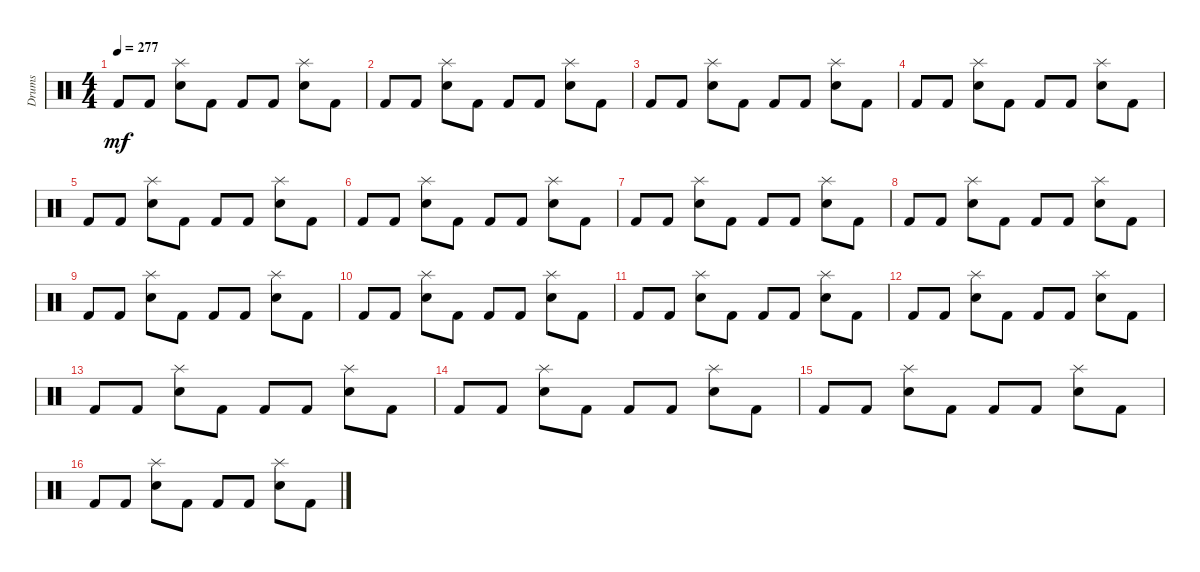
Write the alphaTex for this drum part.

\track ("Drums" "Drums") {instrument percussion}
\staff {score}
\articulation defaults
\ts (4 4)
\tempo 277
\clef neutral
\ks c "Kick (hit) 2".8{dy mf} "Kick (hit) 2".8
("Splash (hit)" "Electric Snare (hit)").8 "Kick (hit) 2".8 "Kick (hit) 2".8 "Kick (hit) 2".8 ("Splash (hit)" "Electric Snare (hit)").8 "Kick (hit) 2".8 |
"Kick (hit) 2".8 "Kick (hit) 2".8 ("Splash (hit)" "Electric Snare (hit)").8 "Kick (hit) 2".8 "Kick (hit) 2".8 "Kick (hit) 2".8 ("Splash (hit)" "Electric Snare (hit)").8 "Kick (hit) 2".8 |
"Kick (hit) 2".8 "Kick (hit) 2".8 ("Splash (hit)" "Electric Snare (hit)").8 "Kick (hit) 2".8 "Kick (hit) 2".8 "Kick (hit) 2".8 ("Splash (hit)" "Electric Snare (hit)").8 "Kick (hit) 2".8 |
"Kick (hit) 2".8 "Kick (hit) 2".8 ("Splash (hit)" "Electric Snare (hit)").8 "Kick (hit) 2".8 "Kick (hit) 2".8 "Kick (hit) 2".8 ("Electric Snare (hit)" "Splash (hit)").8 "Kick (hit) 2".8 |
"Kick (hit) 2".8 "Kick (hit) 2".8 ("Splash (hit)" "Electric Snare (hit)").8 "Kick (hit) 2".8 "Kick (hit) 2".8 "Kick (hit) 2".8 ("Electric Snare (hit)" "Splash (hit)").8 "Kick (hit) 2".8 |
"Kick (hit) 2".8 "Kick (hit) 2".8 ("Splash (hit)" "Electric Snare (hit)").8 "Kick (hit) 2".8 "Kick (hit) 2".8 "Kick (hit) 2".8 ("Electric Snare (hit)" "Splash (hit)").8 "Kick (hit) 2".8 |
"Kick (hit) 2".8 "Kick (hit) 2".8 ("Splash (hit)" "Electric Snare (hit)").8 "Kick (hit) 2".8 "Kick (hit) 2".8 "Kick (hit) 2".8 ("Electric Snare (hit)" "Splash (hit)").8 "Kick (hit) 2".8 |
"Kick (hit) 2".8 "Kick (hit) 2".8 ("Splash (hit)" "Electric Snare (hit)").8 "Kick (hit) 2".8 "Kick (hit) 2".8 "Kick (hit) 2".8 ("Electric Snare (hit)" "Splash (hit)").8 "Kick (hit) 2".8 |
"Kick (hit) 2".8 "Kick (hit) 2".8 ("Electric Snare (hit)" "Splash (hit)").8 "Kick (hit) 2".8 "Kick (hit) 2".8 "Kick (hit) 2".8 ("Splash (hit)" "Electric Snare (hit)").8 "Kick (hit) 2".8 |
"Kick (hit) 2".8 "Kick (hit) 2".8 ("Splash (hit)" "Electric Snare (hit)").8 "Kick (hit) 2".8 "Kick (hit) 2".8 "Kick (hit) 2".8 ("Splash (hit)" "Electric Snare (hit)").8 "Kick (hit) 2".8 |
"Kick (hit) 2".8 "Kick (hit) 2".8 ("Electric Snare (hit)" "Splash (hit)").8 "Kick (hit) 2".8 "Kick (hit) 2".8 "Kick (hit) 2".8 ("Electric Snare (hit)" "Splash (hit)").8 "Kick (hit) 2".8 |
"Kick (hit) 2".8 "Kick (hit) 2".8 ("Electric Snare (hit)" "Splash (hit)").8 "Kick (hit) 2".8 "Kick (hit) 2".8 "Kick (hit) 2".8 ("Splash (hit)" "Electric Snare (hit)").8 "Kick (hit) 2".8 |
"Kick (hit) 2".8 "Kick (hit) 2".8 ("Splash (hit)" "Electric Snare (hit)").8 "Kick (hit) 2".8 "Kick (hit) 2".8 "Kick (hit) 2".8 ("Electric Snare (hit)" "Splash (hit)").8 "Kick (hit) 2".8 |
"Kick (hit) 2".8 "Kick (hit) 2".8 ("Splash (hit)" "Electric Snare (hit)").8 "Kick (hit) 2".8 "Kick (hit) 2".8 "Kick (hit) 2".8 ("Splash (hit)" "Electric Snare (hit)").8 "Kick (hit) 2".8 |
"Kick (hit) 2".8 "Kick (hit) 2".8 ("Electric Snare (hit)" "Splash (hit)").8 "Kick (hit) 2".8 "Kick (hit) 2".8 "Kick (hit) 2".8 ("Splash (hit)" "Electric Snare (hit)").8 "Kick (hit) 2".8 |
"Kick (hit) 2".8 "Kick (hit) 2".8 ("Electric Snare (hit)" "Splash (hit)").8 "Kick (hit) 2".8 "Kick (hit) 2".8 "Kick (hit) 2".8 ("Splash (hit)" "Electric Snare (hit)").8 "Kick (hit) 2".8
